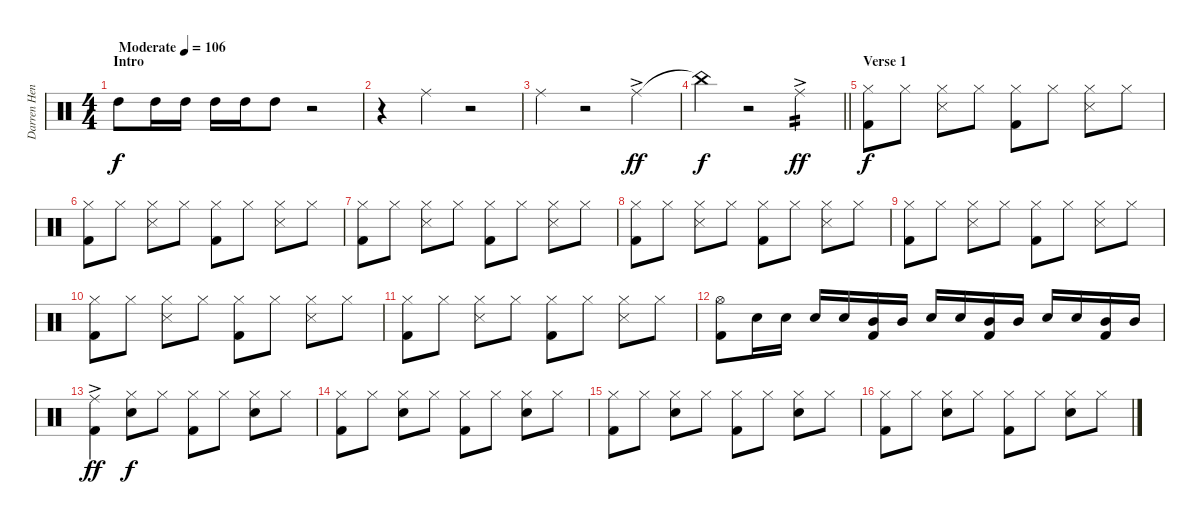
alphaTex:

\track ("Darren Henley [Drums]" "Darren Hen") {instrument percussion}
\staff {score}
\articulation defaults
\ts (4 4)
\section ("" "Intro")
\tempo (106 "Moderate")
\clef neutral
\ks c "High Tom (hit)".8{dy f volume 13} "High Tom (hit)".16 "High Tom (hit)".16 "High Tom (hit)".16 "High Tom (hit)".16 "High Tom (hit)".8
r.2 |
r.4 "Ride (middle)".4 r.2 |
"Ride (middle)".4 r.2 "Ride (middle)"{ac}.4{dy ff} |
\barLineRight lightlight "China (hit)"{t}.4{dy f}
r.2 "Ride (middle)"{ac}.4{tp 2 dy ff} |
\section ("" "Verse 1")
("Hi-Hat (closed)" "Kick (hit) 2").8{dy f} "Hi-Hat (closed)".8 ("Hi-Hat (closed)" "Snare (side stick) 3").8 "Hi-Hat (closed)".8 ("Hi-Hat (closed)" "Kick (hit) 2").8 "Hi-Hat (closed)".8 ("Hi-Hat (closed)" "Snare (side stick) 3").8 "Hi-Hat (closed)".8 |
("Hi-Hat (closed)" "Kick (hit) 2").8 "Hi-Hat (closed)".8 ("Hi-Hat (closed)" "Snare (side stick) 3").8 "Hi-Hat (closed)".8 ("Hi-Hat (closed)" "Kick (hit) 2").8 "Hi-Hat (closed)".8 ("Hi-Hat (closed)" "Snare (side stick) 3").8 "Hi-Hat (closed)".8 |
("Hi-Hat (closed)" "Kick (hit) 2").8 "Hi-Hat (closed)".8 ("Hi-Hat (closed)" "Snare (side stick) 3").8 "Hi-Hat (closed)".8 ("Hi-Hat (closed)" "Kick (hit) 2").8 "Hi-Hat (closed)".8 ("Hi-Hat (closed)" "Snare (side stick) 3").8 "Hi-Hat (closed)".8 |
("Hi-Hat (closed)" "Kick (hit) 2").8 "Hi-Hat (closed)".8 ("Hi-Hat (closed)" "Snare (side stick) 3").8 "Hi-Hat (closed)".8 ("Hi-Hat (closed)" "Kick (hit) 2").8 "Hi-Hat (closed)".8 ("Hi-Hat (closed)" "Snare (side stick) 3").8 "Hi-Hat (closed)".8 |
("Hi-Hat (closed)" "Kick (hit) 2").8 "Hi-Hat (closed)".8 ("Hi-Hat (closed)" "Snare (side stick) 3").8 "Hi-Hat (closed)".8 ("Hi-Hat (closed)" "Kick (hit) 2").8 "Hi-Hat (closed)".8 ("Hi-Hat (closed)" "Snare (side stick) 3").8 "Hi-Hat (closed)".8 |
("Hi-Hat (closed)" "Kick (hit) 2").8 "Hi-Hat (closed)".8 ("Hi-Hat (closed)" "Snare (side stick) 3").8 "Hi-Hat (closed)".8 ("Hi-Hat (closed)" "Kick (hit) 2").8 "Hi-Hat (closed)".8 ("Hi-Hat (closed)" "Snare (side stick) 3").8 "Hi-Hat (closed)".8 |
("Hi-Hat (closed)" "Kick (hit) 2").8 "Hi-Hat (closed)".8 ("Hi-Hat (closed)" "Snare (side stick) 3").8 "Hi-Hat (closed)".8 ("Hi-Hat (closed)" "Kick (hit) 2").8 "Hi-Hat (closed)".8 ("Hi-Hat (closed)" "Snare (side stick) 3").8 "Hi-Hat (closed)".8 |
("Hi-Hat (open)" "Kick (hit) 2").8 "Snare (hit) 2".16 "Snare (hit) 2".16 "Snare (hit) 2".16 "Snare (hit) 2".16 ("Mid Tom (hit)" "Kick (hit) 2").16 "Mid Tom (hit)".16 "Snare (hit) 2".16 "Snare (hit) 2".16 ("Mid Tom (hit)" "Kick (hit) 2").16 "Mid Tom (hit)".16 "Snare (hit) 2".16 "Snare (hit) 2".16 ("Mid Tom (hit)" "Kick (hit) 2").16 "Mid Tom (hit)".16 |
("Ride (middle)"{ac} "Kick (hit) 2").4{dy ff} ("Hi-Hat (closed)" "Snare (hit) 2").8{dy f} "Hi-Hat (closed)".8 ("Hi-Hat (closed)" "Kick (hit) 2").8 "Hi-Hat (closed)".8 ("Hi-Hat (closed)" "Snare (hit) 2").8 "Hi-Hat (closed)".8 |
("Hi-Hat (closed)" "Kick (hit) 2").8 "Hi-Hat (closed)".8 ("Hi-Hat (closed)" "Snare (hit) 2").8 "Hi-Hat (closed)".8 ("Hi-Hat (closed)" "Kick (hit) 2").8 "Hi-Hat (closed)".8 ("Hi-Hat (closed)" "Snare (hit) 2").8 "Hi-Hat (closed)".8 |
("Hi-Hat (closed)" "Kick (hit) 2").8 "Hi-Hat (closed)".8 ("Hi-Hat (closed)" "Snare (hit) 2").8 "Hi-Hat (closed)".8 ("Hi-Hat (closed)" "Kick (hit) 2").8 "Hi-Hat (closed)".8 ("Hi-Hat (closed)" "Snare (hit) 2").8 "Hi-Hat (closed)".8 |
("Hi-Hat (closed)" "Kick (hit) 2").8 "Hi-Hat (closed)".8 ("Hi-Hat (closed)" "Snare (hit) 2").8 "Hi-Hat (closed)".8 ("Hi-Hat (closed)" "Kick (hit) 2").8 "Hi-Hat (closed)".8 ("Hi-Hat (closed)" "Snare (hit) 2").8 "Hi-Hat (closed)".8
